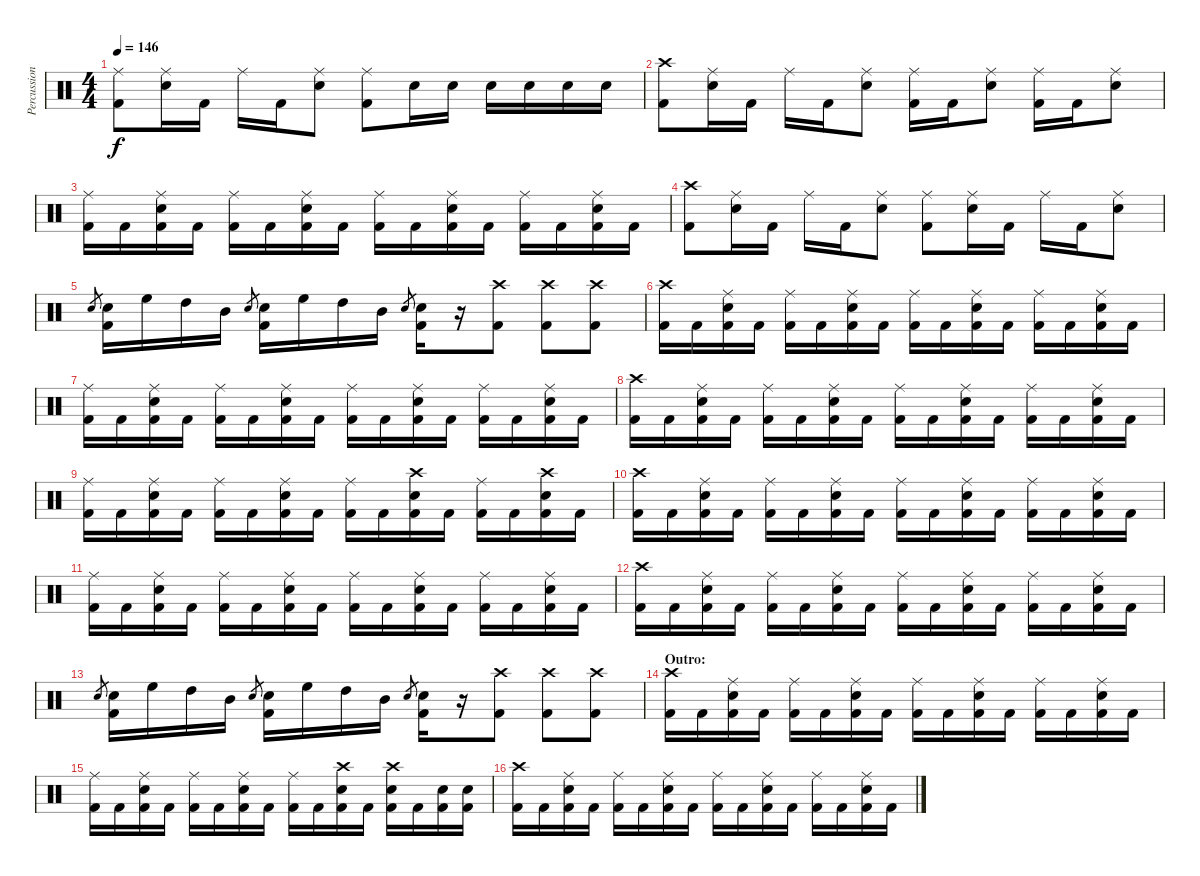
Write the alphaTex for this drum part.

\track ("Percussion" "Percussion") {instrument percussion}
\staff {score}
\articulation defaults
\ts (4 4)
\tempo 146
\clef neutral
\ks c
("Ride (middle)" "Kick (hit) 2").8{dy f} ("Ride (middle)" "Snare (hit) 2").16 "Kick (hit) 2".16 "Ride (middle)".16 "Kick (hit) 2".16 ("Ride (middle)" "Snare (hit) 2").8 ("Ride (middle)" "Kick (hit) 2").8 "Snare (hit) 2".16 "Snare (hit) 2".16 "Snare (hit) 2".16 "Snare (hit) 2".16 "Snare (hit) 2".16 "Snare (hit) 2".16 |
("Crash high (hit)" "Kick (hit) 2").8 ("Ride (middle)" "Snare (hit) 2").16 "Kick (hit) 2".16 "Ride (middle)".16 "Kick (hit) 2".16 ("Ride (middle)" "Snare (hit) 2").8 ("Ride (middle)" "Kick (hit) 2").16 "Kick (hit) 2".16 ("Ride (middle)" "Snare (hit) 2").8 ("Ride (middle)" "Kick (hit) 2").16 "Kick (hit) 2".16 ("Ride (middle)" "Snare (hit) 2").8 |
("Ride (middle)" "Kick (hit) 2").16 "Kick (hit) 2".16 ("Ride (middle)" "Snare (hit) 2" "Kick (hit) 2").16 "Kick (hit) 2".16 ("Ride (middle)" "Kick (hit) 2").16 "Kick (hit) 2".16 ("Ride (middle)" "Snare (hit) 2" "Kick (hit) 2").16 "Kick (hit) 2".16 ("Ride (middle)" "Kick (hit) 2").16 "Kick (hit) 2".16 ("Ride (middle)" "Snare (hit) 2" "Kick (hit) 2").16 "Kick (hit) 2".16 ("Ride (middle)" "Kick (hit) 2").16 "Kick (hit) 2".16 ("Ride (middle)" "Snare (hit) 2" "Kick (hit) 2").16 "Kick (hit) 2".16 |
("Crash high (hit)" "Kick (hit) 2").8 ("Ride (middle)" "Snare (hit) 2").16 "Kick (hit) 2".16 "Ride (middle)".16 "Kick (hit) 2".16 ("Ride (middle)" "Snare (hit) 2").8 ("Ride (middle)" "Kick (hit) 2").8 ("Ride (middle)" "Snare (hit) 2").16 "Kick (hit) 2".16 "Ride (middle)".16 "Kick (hit) 2".16 ("Ride (middle)" "Snare (hit) 2").8 |
"Snare (hit) 2".8{gr} ("Snare (hit) 2" "Kick (hit) 2").16 "High Floor Tom (hit)".16 "High Tom (hit)".16 "Mid Tom (hit)".16 "Snare (hit) 2".8{gr} ("Snare (hit) 2" "Kick (hit) 2").16 "High Floor Tom (hit)".16 "High Tom (hit)".16 "Mid Tom (hit)".16 "Snare (hit) 2".8{gr} ("Snare (hit) 2" "Kick (hit) 2").16 r.16 ("Crash high (hit)" "Kick (hit) 2").8 ("Crash high (hit)" "Kick (hit) 2").8 ("Crash high (hit)" "Kick (hit) 2").8 |
("Crash high (hit)" "Kick (hit) 2").16 "Kick (hit) 2".16 ("Ride (middle)" "Snare (hit) 2" "Kick (hit) 2").16 "Kick (hit) 2".16 ("Ride (middle)" "Kick (hit) 2").16 "Kick (hit) 2".16 ("Ride (middle)" "Snare (hit) 2" "Kick (hit) 2").16 "Kick (hit) 2".16 ("Ride (middle)" "Kick (hit) 2").16 "Kick (hit) 2".16 ("Ride (middle)" "Snare (hit) 2" "Kick (hit) 2").16 "Kick (hit) 2".16 ("Ride (middle)" "Kick (hit) 2").16 "Kick (hit) 2".16 ("Ride (middle)" "Snare (hit) 2" "Kick (hit) 2").16 "Kick (hit) 2".16 |
("Ride (middle)" "Kick (hit) 2").16 "Kick (hit) 2".16 ("Ride (middle)" "Snare (hit) 2" "Kick (hit) 2").16 "Kick (hit) 2".16 ("Ride (middle)" "Kick (hit) 2").16 "Kick (hit) 2".16 ("Ride (middle)" "Snare (hit) 2" "Kick (hit) 2").16 "Kick (hit) 2".16 ("Ride (middle)" "Kick (hit) 2").16 "Kick (hit) 2".16 ("Ride (middle)" "Snare (hit) 2" "Kick (hit) 2").16 "Kick (hit) 2".16 ("Ride (middle)" "Kick (hit) 2").16 "Kick (hit) 2".16 ("Ride (middle)" "Snare (hit) 2" "Kick (hit) 2").16 "Kick (hit) 2".16 |
("Crash high (hit)" "Kick (hit) 2").16 "Kick (hit) 2".16 ("Ride (middle)" "Snare (hit) 2" "Kick (hit) 2").16 "Kick (hit) 2".16 ("Ride (middle)" "Kick (hit) 2").16 "Kick (hit) 2".16 ("Ride (middle)" "Snare (hit) 2" "Kick (hit) 2").16 "Kick (hit) 2".16 ("Ride (middle)" "Kick (hit) 2").16 "Kick (hit) 2".16 ("Ride (middle)" "Snare (hit) 2" "Kick (hit) 2").16 "Kick (hit) 2".16 ("Ride (middle)" "Kick (hit) 2").16 "Kick (hit) 2".16 ("Ride (middle)" "Snare (hit) 2" "Kick (hit) 2").16 "Kick (hit) 2".16 |
("Ride (middle)" "Kick (hit) 2").16 "Kick (hit) 2".16 ("Ride (middle)" "Snare (hit) 2" "Kick (hit) 2").16 "Kick (hit) 2".16 ("Ride (middle)" "Kick (hit) 2").16 "Kick (hit) 2".16 ("Ride (middle)" "Snare (hit) 2" "Kick (hit) 2").16 "Kick (hit) 2".16 ("Ride (middle)" "Kick (hit) 2").16 "Kick (hit) 2".16 ("Crash high (hit)" "Snare (hit) 2" "Kick (hit) 2").16 "Kick (hit) 2".16 ("Ride (middle)" "Kick (hit) 2").16 "Kick (hit) 2".16 ("Crash high (hit)" "Snare (hit) 2" "Kick (hit) 2").16 "Kick (hit) 2".16 |
("Crash high (hit)" "Kick (hit) 2").16 "Kick (hit) 2".16 ("Ride (middle)" "Snare (hit) 2" "Kick (hit) 2").16 "Kick (hit) 2".16 ("Ride (middle)" "Kick (hit) 2").16 "Kick (hit) 2".16 ("Ride (middle)" "Snare (hit) 2" "Kick (hit) 2").16 "Kick (hit) 2".16 ("Ride (middle)" "Kick (hit) 2").16 "Kick (hit) 2".16 ("Ride (middle)" "Snare (hit) 2" "Kick (hit) 2").16 "Kick (hit) 2".16 ("Ride (middle)" "Kick (hit) 2").16 "Kick (hit) 2".16 ("Ride (middle)" "Snare (hit) 2" "Kick (hit) 2").16 "Kick (hit) 2".16 |
("Ride (middle)" "Kick (hit) 2").16 "Kick (hit) 2".16 ("Ride (middle)" "Snare (hit) 2" "Kick (hit) 2").16 "Kick (hit) 2".16 ("Ride (middle)" "Kick (hit) 2").16 "Kick (hit) 2".16 ("Ride (middle)" "Snare (hit) 2" "Kick (hit) 2").16 "Kick (hit) 2".16 ("Ride (middle)" "Kick (hit) 2").16 "Kick (hit) 2".16 ("Ride (middle)" "Snare (hit) 2" "Kick (hit) 2").16 "Kick (hit) 2".16 ("Ride (middle)" "Kick (hit) 2").16 "Kick (hit) 2".16 ("Ride (middle)" "Snare (hit) 2" "Kick (hit) 2").16 "Kick (hit) 2".16 |
("Crash high (hit)" "Kick (hit) 2").16 "Kick (hit) 2".16 ("Ride (middle)" "Snare (hit) 2" "Kick (hit) 2").16 "Kick (hit) 2".16 ("Ride (middle)" "Kick (hit) 2").16 "Kick (hit) 2".16 ("Ride (middle)" "Snare (hit) 2" "Kick (hit) 2").16 "Kick (hit) 2".16 ("Ride (middle)" "Kick (hit) 2").16 "Kick (hit) 2".16 ("Ride (middle)" "Snare (hit) 2" "Kick (hit) 2").16 "Kick (hit) 2".16 ("Ride (middle)" "Kick (hit) 2").16 "Kick (hit) 2".16 ("Ride (middle)" "Snare (hit) 2" "Kick (hit) 2").16 "Kick (hit) 2".16 |
"Snare (hit) 2".8{gr} ("Snare (hit) 2" "Kick (hit) 2").16 "High Floor Tom (hit)".16 "High Tom (hit)".16 "Mid Tom (hit)".16 "Snare (hit) 2".8{gr} ("Snare (hit) 2" "Kick (hit) 2").16 "High Floor Tom (hit)".16 "High Tom (hit)".16 "Mid Tom (hit)".16 "Snare (hit) 2".8{gr} ("Snare (hit) 2" "Kick (hit) 2").16 r.16 ("Crash high (hit)" "Kick (hit) 2").8 ("Crash high (hit)" "Kick (hit) 2").8 ("Crash high (hit)" "Kick (hit) 2").8 |
\section ("" "Outro:")
("Crash high (hit)" "Kick (hit) 2").16 "Kick (hit) 2".16 ("Ride (middle)" "Snare (hit) 2" "Kick (hit) 2").16 "Kick (hit) 2".16 ("Ride (middle)" "Kick (hit) 2").16 "Kick (hit) 2".16 ("Ride (middle)" "Snare (hit) 2" "Kick (hit) 2").16 "Kick (hit) 2".16 ("Ride (middle)" "Kick (hit) 2").16 "Kick (hit) 2".16 ("Ride (middle)" "Snare (hit) 2" "Kick (hit) 2").16 "Kick (hit) 2".16 ("Ride (middle)" "Kick (hit) 2").16 "Kick (hit) 2".16 ("Ride (middle)" "Snare (hit) 2" "Kick (hit) 2").16 "Kick (hit) 2".16 |
("Ride (middle)" "Kick (hit) 2").16 "Kick (hit) 2".16 ("Ride (middle)" "Snare (hit) 2" "Kick (hit) 2").16 "Kick (hit) 2".16 ("Ride (middle)" "Kick (hit) 2").16 "Kick (hit) 2".16 ("Ride (middle)" "Snare (hit) 2" "Kick (hit) 2").16 "Kick (hit) 2".16 ("Ride (middle)" "Kick (hit) 2").16 "Kick (hit) 2".16 ("Crash high (hit)" "Snare (hit) 2" "Kick (hit) 2").16 "Kick (hit) 2".16 ("Crash high (hit)" "Snare (hit) 2" "Kick (hit) 2").16 "Kick (hit) 2".16 ("Snare (hit) 2" "Kick (hit) 2").16 ("Snare (hit) 2" "Kick (hit) 2").16 |
("Crash high (hit)" "Kick (hit) 2").16 "Kick (hit) 2".16 ("Ride (middle)" "Snare (hit) 2" "Kick (hit) 2").16 "Kick (hit) 2".16 ("Ride (middle)" "Kick (hit) 2").16 "Kick (hit) 2".16 ("Ride (middle)" "Snare (hit) 2" "Kick (hit) 2").16 "Kick (hit) 2".16 ("Ride (middle)" "Kick (hit) 2").16 "Kick (hit) 2".16 ("Ride (middle)" "Snare (hit) 2" "Kick (hit) 2").16 "Kick (hit) 2".16 ("Ride (middle)" "Kick (hit) 2").16 "Kick (hit) 2".16 ("Ride (middle)" "Snare (hit) 2" "Kick (hit) 2").16 "Kick (hit) 2".16
